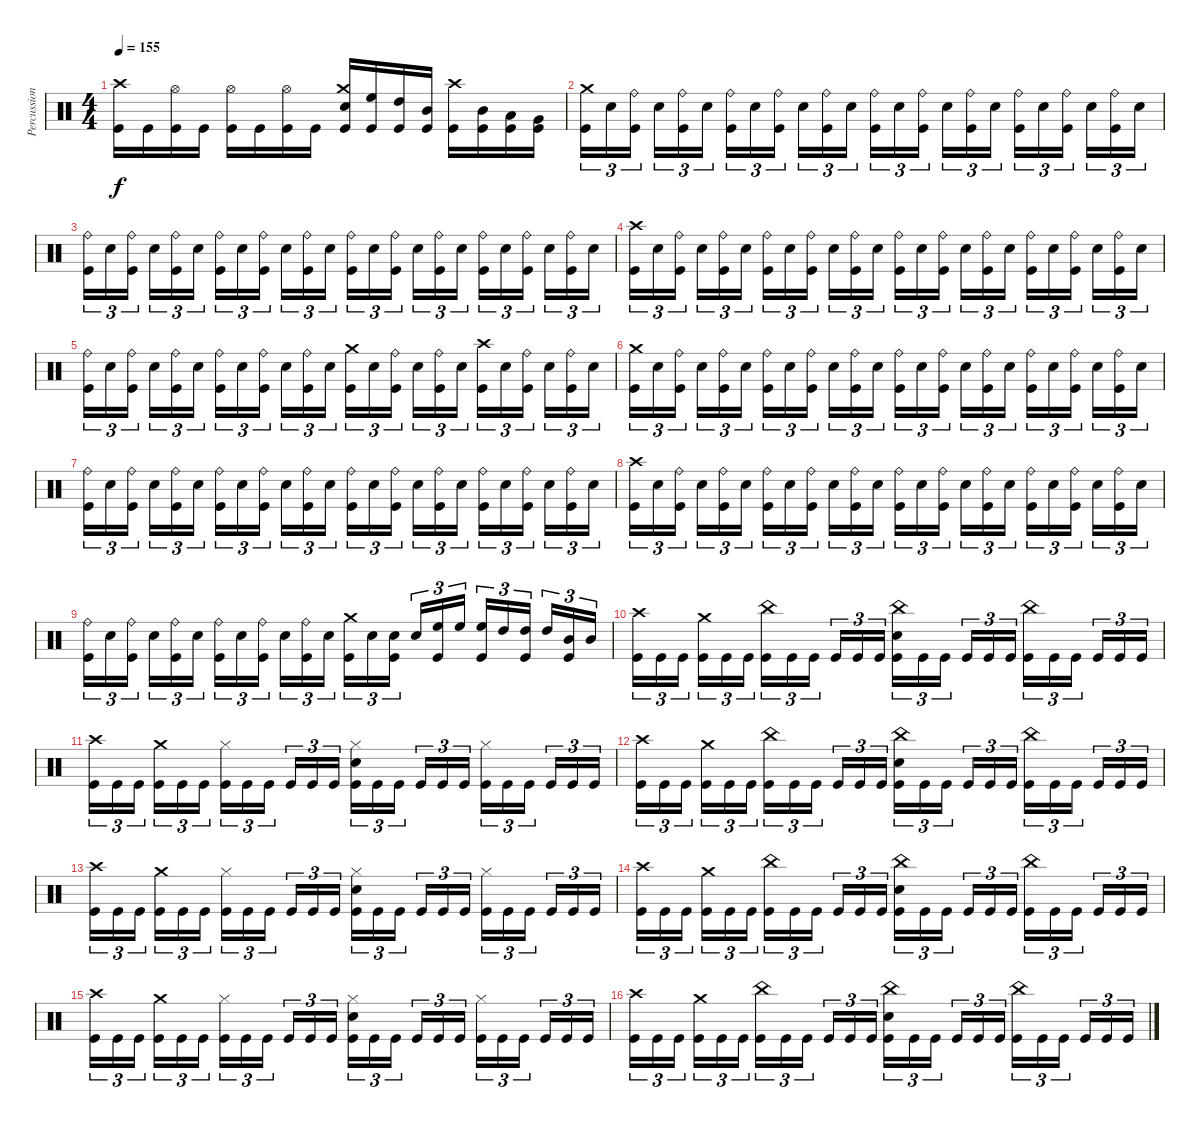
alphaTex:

\track ("Percussion" "Percussion") {instrument percussion}
\staff {score}
\articulation defaults
\ts (4 4)
\tempo 155
\clef neutral
\ks c
("Crash high (hit)" "Kick (hit)").16{dy f} "Kick (hit)".16 ("Hi-Hat (open)" "Kick (hit)").16 "Kick (hit)".16 ("Hi-Hat (open)" "Kick (hit)").16 "Kick (hit)".16 ("Hi-Hat (open)" "Kick (hit)").16 "Kick (hit)".16 ("Crash medium (hit)" "Snare (hit) 2" "Kick (hit)").16 ("High Floor Tom (hit)" "Kick (hit)").16 ("High Tom (hit)" "Kick (hit)").16 ("Mid Tom (hit)" "Kick (hit)").16 ("Crash high (hit)" "Kick (hit)").16 ("Mid Tom (hit)" "Kick (hit)").16 ("Low Tom (hit)" "Kick (hit)").16 ("Very Low Tom (hit)" "Kick (hit)").16 |
("Crash medium (hit)" "Kick (hit)").16{tu (3 2)} "Snare (hit) 2".16{tu (3 2)} ("Ride (bell)" "Kick (hit)").16{tu (3 2) beam splitsecondary} "Snare (hit) 2".16{tu (3 2)} ("Ride (bell)" "Kick (hit)").16{tu (3 2)} "Snare (hit) 2".16{tu (3 2)} ("Ride (bell)" "Kick (hit)").16{tu (3 2)} "Snare (hit) 2".16{tu (3 2)} ("Ride (bell)" "Kick (hit)").16{tu (3 2) beam splitsecondary} "Snare (hit) 2".16{tu (3 2)} ("Ride (bell)" "Kick (hit)").16{tu (3 2)} "Snare (hit) 2".16{tu (3 2)} ("Ride (bell)" "Kick (hit)").16{tu (3 2)} "Snare (hit) 2".16{tu (3 2)} ("Ride (bell)" "Kick (hit)").16{tu (3 2) beam splitsecondary} "Snare (hit) 2".16{tu (3 2)} ("Ride (bell)" "Kick (hit)").16{tu (3 2)} "Snare (hit) 2".16{tu (3 2)} ("Ride (bell)" "Kick (hit)").16{tu (3 2)} "Snare (hit) 2".16{tu (3 2)} ("Ride (bell)" "Kick (hit)").16{tu (3 2) beam splitsecondary} "Snare (hit) 2".16{tu (3 2)} ("Ride (bell)" "Kick (hit)").16{tu (3 2)} "Snare (hit) 2".16{tu (3 2)} |
("Ride (bell)" "Kick (hit)").16{tu (3 2)} "Snare (hit) 2".16{tu (3 2)} ("Ride (bell)" "Kick (hit)").16{tu (3 2) beam splitsecondary} "Snare (hit) 2".16{tu (3 2)} ("Ride (bell)" "Kick (hit)").16{tu (3 2)} "Snare (hit) 2".16{tu (3 2)} ("Ride (bell)" "Kick (hit)").16{tu (3 2)} "Snare (hit) 2".16{tu (3 2)} ("Ride (bell)" "Kick (hit)").16{tu (3 2) beam splitsecondary} "Snare (hit) 2".16{tu (3 2)} ("Ride (bell)" "Kick (hit)").16{tu (3 2)} "Snare (hit) 2".16{tu (3 2)} ("Ride (bell)" "Kick (hit)").16{tu (3 2)} "Snare (hit) 2".16{tu (3 2)} ("Ride (bell)" "Kick (hit)").16{tu (3 2) beam splitsecondary} "Snare (hit) 2".16{tu (3 2)} ("Ride (bell)" "Kick (hit)").16{tu (3 2)} "Snare (hit) 2".16{tu (3 2)} ("Ride (bell)" "Kick (hit)").16{tu (3 2)} "Snare (hit) 2".16{tu (3 2)} ("Ride (bell)" "Kick (hit)").16{tu (3 2) beam splitsecondary} "Snare (hit) 2".16{tu (3 2)} ("Ride (bell)" "Kick (hit)").16{tu (3 2)} "Snare (hit) 2".16{tu (3 2)} |
("Crash high (hit)" "Kick (hit)").16{tu (3 2)} "Snare (hit) 2".16{tu (3 2)} ("Ride (bell)" "Kick (hit)").16{tu (3 2) beam splitsecondary} "Snare (hit) 2".16{tu (3 2)} ("Ride (bell)" "Kick (hit)").16{tu (3 2)} "Snare (hit) 2".16{tu (3 2)} ("Ride (bell)" "Kick (hit)").16{tu (3 2)} "Snare (hit) 2".16{tu (3 2)} ("Ride (bell)" "Kick (hit)").16{tu (3 2) beam splitsecondary} "Snare (hit) 2".16{tu (3 2)} ("Ride (bell)" "Kick (hit)").16{tu (3 2)} "Snare (hit) 2".16{tu (3 2)} ("Ride (bell)" "Kick (hit)").16{tu (3 2)} "Snare (hit) 2".16{tu (3 2)} ("Ride (bell)" "Kick (hit)").16{tu (3 2) beam splitsecondary} "Snare (hit) 2".16{tu (3 2)} ("Ride (bell)" "Kick (hit)").16{tu (3 2)} "Snare (hit) 2".16{tu (3 2)} ("Ride (bell)" "Kick (hit)").16{tu (3 2)} "Snare (hit) 2".16{tu (3 2)} ("Ride (bell)" "Kick (hit)").16{tu (3 2) beam splitsecondary} "Snare (hit) 2".16{tu (3 2)} ("Ride (bell)" "Kick (hit)").16{tu (3 2)} "Snare (hit) 2".16{tu (3 2)} |
("Ride (bell)" "Kick (hit)").16{tu (3 2)} "Snare (hit) 2".16{tu (3 2)} ("Ride (bell)" "Kick (hit)").16{tu (3 2) beam splitsecondary} "Snare (hit) 2".16{tu (3 2)} ("Ride (bell)" "Kick (hit)").16{tu (3 2)} "Snare (hit) 2".16{tu (3 2)} ("Ride (bell)" "Kick (hit)").16{tu (3 2)} "Snare (hit) 2".16{tu (3 2)} ("Ride (bell)" "Kick (hit)").16{tu (3 2) beam splitsecondary} "Snare (hit) 2".16{tu (3 2)} ("Ride (bell)" "Kick (hit)").16{tu (3 2)} "Snare (hit) 2".16{tu (3 2)} ("Crash medium (hit)" "Kick (hit)").16{tu (3 2)} "Snare (hit) 2".16{tu (3 2)} ("Ride (bell)" "Kick (hit)").16{tu (3 2) beam splitsecondary} "Snare (hit) 2".16{tu (3 2)} ("Ride (bell)" "Kick (hit)").16{tu (3 2)} "Snare (hit) 2".16{tu (3 2)} ("Crash high (hit)" "Kick (hit)").16{tu (3 2)} "Snare (hit) 2".16{tu (3 2)} ("Ride (bell)" "Kick (hit)").16{tu (3 2) beam splitsecondary} "Snare (hit) 2".16{tu (3 2)} ("Ride (bell)" "Kick (hit)").16{tu (3 2)} "Snare (hit) 2".16{tu (3 2)} |
("Crash medium (hit)" "Kick (hit)").16{tu (3 2)} "Snare (hit) 2".16{tu (3 2)} ("Ride (bell)" "Kick (hit)").16{tu (3 2) beam splitsecondary} "Snare (hit) 2".16{tu (3 2)} ("Ride (bell)" "Kick (hit)").16{tu (3 2)} "Snare (hit) 2".16{tu (3 2)} ("Ride (bell)" "Kick (hit)").16{tu (3 2)} "Snare (hit) 2".16{tu (3 2)} ("Ride (bell)" "Kick (hit)").16{tu (3 2) beam splitsecondary} "Snare (hit) 2".16{tu (3 2)} ("Ride (bell)" "Kick (hit)").16{tu (3 2)} "Snare (hit) 2".16{tu (3 2)} ("Ride (bell)" "Kick (hit)").16{tu (3 2)} "Snare (hit) 2".16{tu (3 2)} ("Ride (bell)" "Kick (hit)").16{tu (3 2) beam splitsecondary} "Snare (hit) 2".16{tu (3 2)} ("Ride (bell)" "Kick (hit)").16{tu (3 2)} "Snare (hit) 2".16{tu (3 2)} ("Ride (bell)" "Kick (hit)").16{tu (3 2)} "Snare (hit) 2".16{tu (3 2)} ("Ride (bell)" "Kick (hit)").16{tu (3 2) beam splitsecondary} "Snare (hit) 2".16{tu (3 2)} ("Ride (bell)" "Kick (hit)").16{tu (3 2)} "Snare (hit) 2".16{tu (3 2)} |
("Ride (bell)" "Kick (hit)").16{tu (3 2)} "Snare (hit) 2".16{tu (3 2)} ("Ride (bell)" "Kick (hit)").16{tu (3 2) beam splitsecondary} "Snare (hit) 2".16{tu (3 2)} ("Ride (bell)" "Kick (hit)").16{tu (3 2)} "Snare (hit) 2".16{tu (3 2)} ("Ride (bell)" "Kick (hit)").16{tu (3 2)} "Snare (hit) 2".16{tu (3 2)} ("Ride (bell)" "Kick (hit)").16{tu (3 2) beam splitsecondary} "Snare (hit) 2".16{tu (3 2)} ("Ride (bell)" "Kick (hit)").16{tu (3 2)} "Snare (hit) 2".16{tu (3 2)} ("Ride (bell)" "Kick (hit)").16{tu (3 2)} "Snare (hit) 2".16{tu (3 2)} ("Ride (bell)" "Kick (hit)").16{tu (3 2) beam splitsecondary} "Snare (hit) 2".16{tu (3 2)} ("Ride (bell)" "Kick (hit)").16{tu (3 2)} "Snare (hit) 2".16{tu (3 2)} ("Ride (bell)" "Kick (hit)").16{tu (3 2)} "Snare (hit) 2".16{tu (3 2)} ("Ride (bell)" "Kick (hit)").16{tu (3 2) beam splitsecondary} "Snare (hit) 2".16{tu (3 2)} ("Ride (bell)" "Kick (hit)").16{tu (3 2)} "Snare (hit) 2".16{tu (3 2)} |
("Crash high (hit)" "Kick (hit)").16{tu (3 2)} "Snare (hit) 2".16{tu (3 2)} ("Ride (bell)" "Kick (hit)").16{tu (3 2) beam splitsecondary} "Snare (hit) 2".16{tu (3 2)} ("Ride (bell)" "Kick (hit)").16{tu (3 2)} "Snare (hit) 2".16{tu (3 2)} ("Ride (bell)" "Kick (hit)").16{tu (3 2)} "Snare (hit) 2".16{tu (3 2)} ("Ride (bell)" "Kick (hit)").16{tu (3 2) beam splitsecondary} "Snare (hit) 2".16{tu (3 2)} ("Ride (bell)" "Kick (hit)").16{tu (3 2)} "Snare (hit) 2".16{tu (3 2)} ("Ride (bell)" "Kick (hit)").16{tu (3 2)} "Snare (hit) 2".16{tu (3 2)} ("Ride (bell)" "Kick (hit)").16{tu (3 2) beam splitsecondary} "Snare (hit) 2".16{tu (3 2)} ("Ride (bell)" "Kick (hit)").16{tu (3 2)} "Snare (hit) 2".16{tu (3 2)} ("Ride (bell)" "Kick (hit)").16{tu (3 2)} "Snare (hit) 2".16{tu (3 2)} ("Ride (bell)" "Kick (hit)").16{tu (3 2) beam splitsecondary} "Snare (hit) 2".16{tu (3 2)} ("Ride (bell)" "Kick (hit)").16{tu (3 2)} "Snare (hit) 2".16{tu (3 2)} |
("Ride (bell)" "Kick (hit)").16{tu (3 2)} "Snare (hit) 2".16{tu (3 2)} ("Ride (bell)" "Kick (hit)").16{tu (3 2) beam splitsecondary} "Snare (hit) 2".16{tu (3 2)} ("Ride (bell)" "Kick (hit)").16{tu (3 2)} "Snare (hit) 2".16{tu (3 2)} ("Ride (bell)" "Kick (hit)").16{tu (3 2)} "Snare (hit) 2".16{tu (3 2)} ("Ride (bell)" "Kick (hit)").16{tu (3 2) beam splitsecondary} "Snare (hit) 2".16{tu (3 2)} ("Ride (bell)" "Kick (hit)").16{tu (3 2)} "Snare (hit) 2".16{tu (3 2)} ("Crash medium (hit)" "Kick (hit)").16{tu (3 2)} "Snare (hit) 2".16{tu (3 2)} ("Snare (hit) 2" "Kick (hit)").16{tu (3 2) beam splitsecondary} "Snare (hit) 2".16{tu (3 2)} ("High Floor Tom (hit)" "Kick (hit)").16{tu (3 2)} "High Floor Tom (hit)".16{tu (3 2)} ("High Floor Tom (hit)" "Kick (hit)").16{tu (3 2)} "High Tom (hit)".16{tu (3 2)} ("High Tom (hit)" "Kick (hit)").16{tu (3 2) beam splitsecondary} "High Tom (hit)".16{tu (3 2)} ("Mid Tom (hit)" "Kick (hit)").16{tu (3 2)} "Mid Tom (hit)".16{tu (3 2)} |
("Crash high (hit)" "Kick (hit)").16{tu (3 2)} "Kick (hit)".16{tu (3 2)} "Kick (hit)".16{tu (3 2) beam splitsecondary} ("Crash medium (hit)" "Kick (hit)").16{tu (3 2)} "Kick (hit)".16{tu (3 2)} "Kick (hit)".16{tu (3 2)} ("China (hit)" "Kick (hit)").16{tu (3 2)} "Kick (hit)".16{tu (3 2)} "Kick (hit)".16{tu (3 2) beam splitsecondary} "Kick (hit)".16{tu (3 2)} "Kick (hit)".16{tu (3 2)} "Kick (hit)".16{tu (3 2)} ("China (hit)" "Snare (hit) 2" "Kick (hit)").16{tu (3 2)} "Kick (hit)".16{tu (3 2)} "Kick (hit)".16{tu (3 2) beam splitsecondary} "Kick (hit)".16{tu (3 2)} "Kick (hit)".16{tu (3 2)} "Kick (hit)".16{tu (3 2)} ("China (hit)" "Kick (hit)").16{tu (3 2)} "Kick (hit)".16{tu (3 2)} "Kick (hit)".16{tu (3 2) beam splitsecondary} "Kick (hit)".16{tu (3 2)} "Kick (hit)".16{tu (3 2)} "Kick (hit)".16{tu (3 2)} |
("Crash high (hit)" "Kick (hit)").16{tu (3 2)} "Kick (hit)".16{tu (3 2)} "Kick (hit)".16{tu (3 2) beam splitsecondary} ("Crash medium (hit)" "Kick (hit)").16{tu (3 2)} "Kick (hit)".16{tu (3 2)} "Kick (hit)".16{tu (3 2)} ("Hi-Hat (closed)" "Kick (hit)").16{tu (3 2)} "Kick (hit)".16{tu (3 2)} "Kick (hit)".16{tu (3 2) beam splitsecondary} "Kick (hit)".16{tu (3 2)} "Kick (hit)".16{tu (3 2)} "Kick (hit)".16{tu (3 2)} ("Hi-Hat (closed)" "Snare (hit) 2" "Kick (hit)").16{tu (3 2)} "Kick (hit)".16{tu (3 2)} "Kick (hit)".16{tu (3 2) beam splitsecondary} "Kick (hit)".16{tu (3 2)} "Kick (hit)".16{tu (3 2)} "Kick (hit)".16{tu (3 2)} ("Hi-Hat (closed)" "Kick (hit)").16{tu (3 2)} "Kick (hit)".16{tu (3 2)} "Kick (hit)".16{tu (3 2) beam splitsecondary} "Kick (hit)".16{tu (3 2)} "Kick (hit)".16{tu (3 2)} "Kick (hit)".16{tu (3 2)} |
("Crash high (hit)" "Kick (hit)").16{tu (3 2)} "Kick (hit)".16{tu (3 2)} "Kick (hit)".16{tu (3 2) beam splitsecondary} ("Crash medium (hit)" "Kick (hit)").16{tu (3 2)} "Kick (hit)".16{tu (3 2)} "Kick (hit)".16{tu (3 2)} ("China (hit)" "Kick (hit)").16{tu (3 2)} "Kick (hit)".16{tu (3 2)} "Kick (hit)".16{tu (3 2) beam splitsecondary} "Kick (hit)".16{tu (3 2)} "Kick (hit)".16{tu (3 2)} "Kick (hit)".16{tu (3 2)} ("China (hit)" "Snare (hit) 2" "Kick (hit)").16{tu (3 2)} "Kick (hit)".16{tu (3 2)} "Kick (hit)".16{tu (3 2) beam splitsecondary} "Kick (hit)".16{tu (3 2)} "Kick (hit)".16{tu (3 2)} "Kick (hit)".16{tu (3 2)} ("China (hit)" "Kick (hit)").16{tu (3 2)} "Kick (hit)".16{tu (3 2)} "Kick (hit)".16{tu (3 2) beam splitsecondary} "Kick (hit)".16{tu (3 2)} "Kick (hit)".16{tu (3 2)} "Kick (hit)".16{tu (3 2)} |
("Crash high (hit)" "Kick (hit)").16{tu (3 2)} "Kick (hit)".16{tu (3 2)} "Kick (hit)".16{tu (3 2) beam splitsecondary} ("Crash medium (hit)" "Kick (hit)").16{tu (3 2)} "Kick (hit)".16{tu (3 2)} "Kick (hit)".16{tu (3 2)} ("Hi-Hat (closed)" "Kick (hit)").16{tu (3 2)} "Kick (hit)".16{tu (3 2)} "Kick (hit)".16{tu (3 2) beam splitsecondary} "Kick (hit)".16{tu (3 2)} "Kick (hit)".16{tu (3 2)} "Kick (hit)".16{tu (3 2)} ("Hi-Hat (closed)" "Snare (hit) 2" "Kick (hit)").16{tu (3 2)} "Kick (hit)".16{tu (3 2)} "Kick (hit)".16{tu (3 2) beam splitsecondary} "Kick (hit)".16{tu (3 2)} "Kick (hit)".16{tu (3 2)} "Kick (hit)".16{tu (3 2)} ("Hi-Hat (closed)" "Kick (hit)").16{tu (3 2)} "Kick (hit)".16{tu (3 2)} "Kick (hit)".16{tu (3 2) beam splitsecondary} "Kick (hit)".16{tu (3 2)} "Kick (hit)".16{tu (3 2)} "Kick (hit)".16{tu (3 2)} |
("Crash high (hit)" "Kick (hit)").16{tu (3 2)} "Kick (hit)".16{tu (3 2)} "Kick (hit)".16{tu (3 2) beam splitsecondary} ("Crash medium (hit)" "Kick (hit)").16{tu (3 2)} "Kick (hit)".16{tu (3 2)} "Kick (hit)".16{tu (3 2)} ("China (hit)" "Kick (hit)").16{tu (3 2)} "Kick (hit)".16{tu (3 2)} "Kick (hit)".16{tu (3 2) beam splitsecondary} "Kick (hit)".16{tu (3 2)} "Kick (hit)".16{tu (3 2)} "Kick (hit)".16{tu (3 2)} ("China (hit)" "Snare (hit) 2" "Kick (hit)").16{tu (3 2)} "Kick (hit)".16{tu (3 2)} "Kick (hit)".16{tu (3 2) beam splitsecondary} "Kick (hit)".16{tu (3 2)} "Kick (hit)".16{tu (3 2)} "Kick (hit)".16{tu (3 2)} ("China (hit)" "Kick (hit)").16{tu (3 2)} "Kick (hit)".16{tu (3 2)} "Kick (hit)".16{tu (3 2) beam splitsecondary} "Kick (hit)".16{tu (3 2)} "Kick (hit)".16{tu (3 2)} "Kick (hit)".16{tu (3 2)} |
("Crash high (hit)" "Kick (hit)").16{tu (3 2)} "Kick (hit)".16{tu (3 2)} "Kick (hit)".16{tu (3 2) beam splitsecondary} ("Crash medium (hit)" "Kick (hit)").16{tu (3 2)} "Kick (hit)".16{tu (3 2)} "Kick (hit)".16{tu (3 2)} ("Hi-Hat (closed)" "Kick (hit)").16{tu (3 2)} "Kick (hit)".16{tu (3 2)} "Kick (hit)".16{tu (3 2) beam splitsecondary} "Kick (hit)".16{tu (3 2)} "Kick (hit)".16{tu (3 2)} "Kick (hit)".16{tu (3 2)} ("Hi-Hat (closed)" "Snare (hit) 2" "Kick (hit)").16{tu (3 2)} "Kick (hit)".16{tu (3 2)} "Kick (hit)".16{tu (3 2) beam splitsecondary} "Kick (hit)".16{tu (3 2)} "Kick (hit)".16{tu (3 2)} "Kick (hit)".16{tu (3 2)} ("Hi-Hat (closed)" "Kick (hit)").16{tu (3 2)} "Kick (hit)".16{tu (3 2)} "Kick (hit)".16{tu (3 2) beam splitsecondary} "Kick (hit)".16{tu (3 2)} "Kick (hit)".16{tu (3 2)} "Kick (hit)".16{tu (3 2)} |
("Crash high (hit)" "Kick (hit)").16{tu (3 2)} "Kick (hit)".16{tu (3 2)} "Kick (hit)".16{tu (3 2) beam splitsecondary} ("Crash medium (hit)" "Kick (hit)").16{tu (3 2)} "Kick (hit)".16{tu (3 2)} "Kick (hit)".16{tu (3 2)} ("China (hit)" "Kick (hit)").16{tu (3 2)} "Kick (hit)".16{tu (3 2)} "Kick (hit)".16{tu (3 2) beam splitsecondary} "Kick (hit)".16{tu (3 2)} "Kick (hit)".16{tu (3 2)} "Kick (hit)".16{tu (3 2)} ("China (hit)" "Snare (hit) 2" "Kick (hit)").16{tu (3 2)} "Kick (hit)".16{tu (3 2)} "Kick (hit)".16{tu (3 2) beam splitsecondary} "Kick (hit)".16{tu (3 2)} "Kick (hit)".16{tu (3 2)} "Kick (hit)".16{tu (3 2)} ("China (hit)" "Kick (hit)").16{tu (3 2)} "Kick (hit)".16{tu (3 2)} "Kick (hit)".16{tu (3 2) beam splitsecondary} "Kick (hit)".16{tu (3 2)} "Kick (hit)".16{tu (3 2)} "Kick (hit)".16{tu (3 2)}
